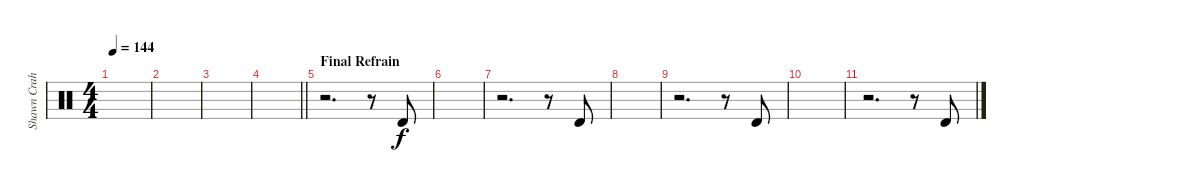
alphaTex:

\track ("Shawn Crahan" "Shawn Crah") {instrument percussion}
\staff {score}
\articulation defaults
\ts (4 4)
\tempo 144
\clef neutral
\ks c
|
|
|
\barLineRight lightlight
|
\section ("" "Final Refrain")
r.2{d} r.8 "Timbale high (hit)".8 |
|
r.2{d} r.8 "Timbale high (hit)".8 |
|
r.2{d} r.8 "Timbale high (hit)".8 |
|
r.2{d} r.8 "Timbale high (hit)".8
